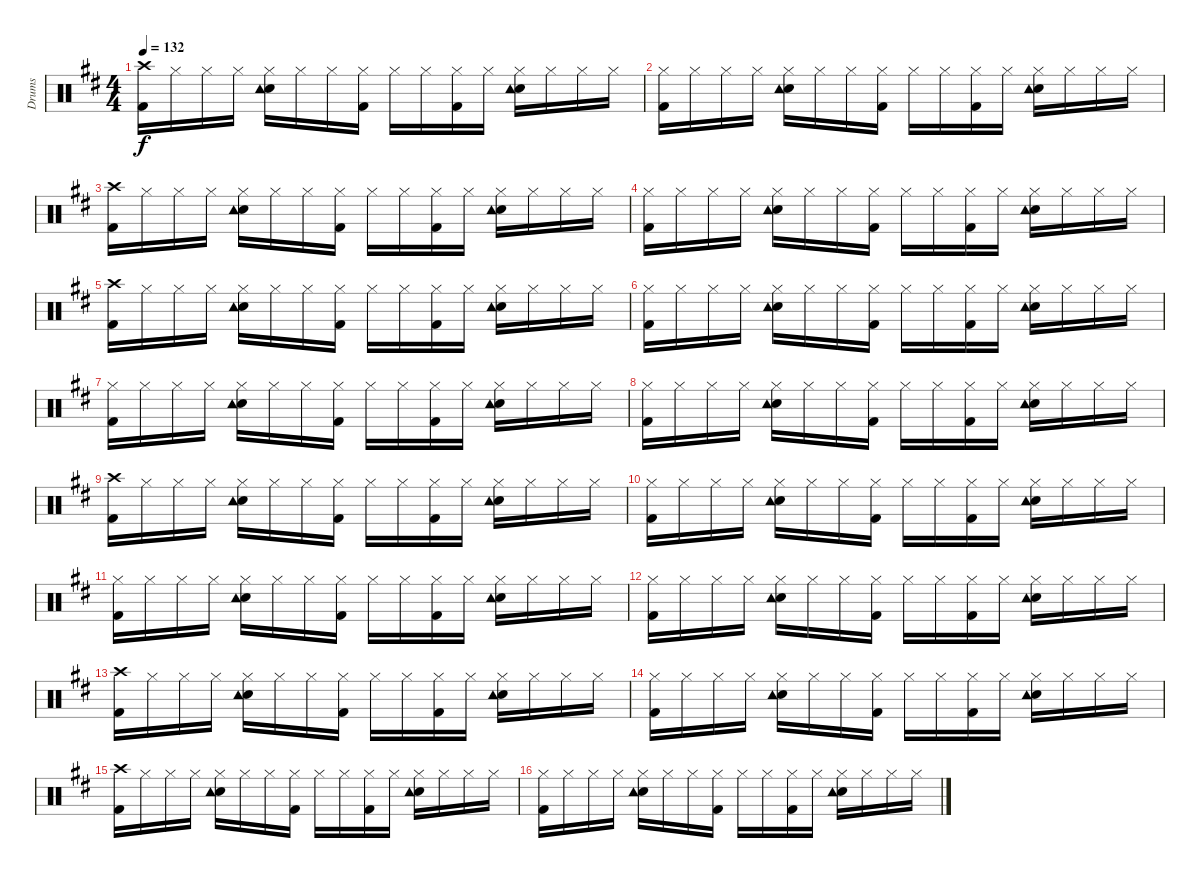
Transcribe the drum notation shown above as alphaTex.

\track ("Drums" "Drums") {instrument percussion}
\staff {score}
\articulation defaults
\ts (4 4)
\tempo 132
\clef neutral
\ks d
("Crash high (hit)" "Kick (hit) 2").16{dy f} "Hi-Hat (closed)".16 "Hi-Hat (closed)".16 "Hi-Hat (closed)".16 ("Hi-Hat (closed)" "Electric Snare (hit)" "Tambourine (hit)").16 "Hi-Hat (closed)".16 "Hi-Hat (closed)".16 ("Hi-Hat (closed)" "Kick (hit) 2").16 "Hi-Hat (closed)".16 "Hi-Hat (closed)".16 ("Hi-Hat (closed)" "Kick (hit) 2").16 "Hi-Hat (closed)".16 ("Hi-Hat (closed)" "Electric Snare (hit)" "Tambourine (hit)").16 "Hi-Hat (closed)".16 "Hi-Hat (closed)".16 "Hi-Hat (closed)".16 |
("Hi-Hat (closed)" "Kick (hit) 2").16 "Hi-Hat (closed)".16 "Hi-Hat (closed)".16 "Hi-Hat (closed)".16 ("Hi-Hat (closed)" "Electric Snare (hit)" "Tambourine (hit)").16 "Hi-Hat (closed)".16 "Hi-Hat (closed)".16 ("Hi-Hat (closed)" "Kick (hit) 2").16 "Hi-Hat (closed)".16 "Hi-Hat (closed)".16 ("Hi-Hat (closed)" "Kick (hit) 2").16 "Hi-Hat (closed)".16 ("Hi-Hat (closed)" "Electric Snare (hit)" "Tambourine (hit)").16 "Hi-Hat (closed)".16 "Hi-Hat (closed)".16 "Hi-Hat (closed)".16 |
("Crash high (hit)" "Kick (hit) 2").16 "Hi-Hat (closed)".16 "Hi-Hat (closed)".16 "Hi-Hat (closed)".16 ("Hi-Hat (closed)" "Electric Snare (hit)" "Tambourine (hit)").16 "Hi-Hat (closed)".16 "Hi-Hat (closed)".16 ("Hi-Hat (closed)" "Kick (hit) 2").16 "Hi-Hat (closed)".16 "Hi-Hat (closed)".16 ("Hi-Hat (closed)" "Kick (hit) 2").16 "Hi-Hat (closed)".16 ("Hi-Hat (closed)" "Electric Snare (hit)" "Tambourine (hit)").16 "Hi-Hat (closed)".16 "Hi-Hat (closed)".16 "Hi-Hat (closed)".16 |
("Hi-Hat (closed)" "Kick (hit) 2").16 "Hi-Hat (closed)".16 "Hi-Hat (closed)".16 "Hi-Hat (closed)".16 ("Hi-Hat (closed)" "Electric Snare (hit)" "Tambourine (hit)").16 "Hi-Hat (closed)".16 "Hi-Hat (closed)".16 ("Hi-Hat (closed)" "Kick (hit) 2").16 "Hi-Hat (closed)".16 "Hi-Hat (closed)".16 ("Hi-Hat (closed)" "Kick (hit) 2").16 "Hi-Hat (closed)".16 ("Hi-Hat (closed)" "Electric Snare (hit)" "Tambourine (hit)").16 "Hi-Hat (closed)".16 "Hi-Hat (closed)".16 "Hi-Hat (closed)".16 |
("Crash high (hit)" "Kick (hit) 2").16 "Hi-Hat (closed)".16 "Hi-Hat (closed)".16 "Hi-Hat (closed)".16 ("Hi-Hat (closed)" "Electric Snare (hit)" "Tambourine (hit)").16 "Hi-Hat (closed)".16 "Hi-Hat (closed)".16 ("Hi-Hat (closed)" "Kick (hit) 2").16 "Hi-Hat (closed)".16 "Hi-Hat (closed)".16 ("Hi-Hat (closed)" "Kick (hit) 2").16 "Hi-Hat (closed)".16 ("Hi-Hat (closed)" "Electric Snare (hit)" "Tambourine (hit)").16 "Hi-Hat (closed)".16 "Hi-Hat (closed)".16 "Hi-Hat (closed)".16 |
("Hi-Hat (closed)" "Kick (hit) 2").16 "Hi-Hat (closed)".16 "Hi-Hat (closed)".16 "Hi-Hat (closed)".16 ("Hi-Hat (closed)" "Electric Snare (hit)" "Tambourine (hit)").16 "Hi-Hat (closed)".16 "Hi-Hat (closed)".16 ("Hi-Hat (closed)" "Kick (hit) 2").16 "Hi-Hat (closed)".16 "Hi-Hat (closed)".16 ("Hi-Hat (closed)" "Kick (hit) 2").16 "Hi-Hat (closed)".16 ("Hi-Hat (closed)" "Electric Snare (hit)" "Tambourine (hit)").16 "Hi-Hat (closed)".16 "Hi-Hat (closed)".16 "Hi-Hat (closed)".16 |
("Hi-Hat (closed)" "Kick (hit) 2").16 "Hi-Hat (closed)".16 "Hi-Hat (closed)".16 "Hi-Hat (closed)".16 ("Hi-Hat (closed)" "Electric Snare (hit)" "Tambourine (hit)").16 "Hi-Hat (closed)".16 "Hi-Hat (closed)".16 ("Hi-Hat (closed)" "Kick (hit) 2").16 "Hi-Hat (closed)".16 "Hi-Hat (closed)".16 ("Hi-Hat (closed)" "Kick (hit) 2").16 "Hi-Hat (closed)".16 ("Hi-Hat (closed)" "Electric Snare (hit)" "Tambourine (hit)").16 "Hi-Hat (closed)".16 "Hi-Hat (closed)".16 "Hi-Hat (closed)".16 |
("Hi-Hat (closed)" "Kick (hit) 2").16 "Hi-Hat (closed)".16 "Hi-Hat (closed)".16 "Hi-Hat (closed)".16 ("Hi-Hat (closed)" "Electric Snare (hit)" "Tambourine (hit)").16 "Hi-Hat (closed)".16 "Hi-Hat (closed)".16 ("Hi-Hat (closed)" "Kick (hit) 2").16 "Hi-Hat (closed)".16 "Hi-Hat (closed)".16 ("Hi-Hat (closed)" "Kick (hit) 2").16 "Hi-Hat (closed)".16 ("Hi-Hat (closed)" "Electric Snare (hit)" "Tambourine (hit)").16 "Hi-Hat (closed)".16 "Hi-Hat (closed)".16 "Hi-Hat (closed)".16 |
("Crash high (hit)" "Kick (hit) 2").16 "Hi-Hat (closed)".16 "Hi-Hat (closed)".16 "Hi-Hat (closed)".16 ("Hi-Hat (closed)" "Electric Snare (hit)" "Tambourine (hit)").16 "Hi-Hat (closed)".16 "Hi-Hat (closed)".16 ("Hi-Hat (closed)" "Kick (hit) 2").16 "Hi-Hat (closed)".16 "Hi-Hat (closed)".16 ("Hi-Hat (closed)" "Kick (hit) 2").16 "Hi-Hat (closed)".16 ("Hi-Hat (closed)" "Electric Snare (hit)" "Tambourine (hit)").16 "Hi-Hat (closed)".16 "Hi-Hat (closed)".16 "Hi-Hat (closed)".16 |
("Hi-Hat (closed)" "Kick (hit) 2").16 "Hi-Hat (closed)".16 "Hi-Hat (closed)".16 "Hi-Hat (closed)".16 ("Hi-Hat (closed)" "Electric Snare (hit)" "Tambourine (hit)").16 "Hi-Hat (closed)".16 "Hi-Hat (closed)".16 ("Hi-Hat (closed)" "Kick (hit) 2").16 "Hi-Hat (closed)".16 "Hi-Hat (closed)".16 ("Hi-Hat (closed)" "Kick (hit) 2").16 "Hi-Hat (closed)".16 ("Hi-Hat (closed)" "Electric Snare (hit)" "Tambourine (hit)").16 "Hi-Hat (closed)".16 "Hi-Hat (closed)".16 "Hi-Hat (closed)".16 |
("Hi-Hat (closed)" "Kick (hit) 2").16 "Hi-Hat (closed)".16 "Hi-Hat (closed)".16 "Hi-Hat (closed)".16 ("Hi-Hat (closed)" "Electric Snare (hit)" "Tambourine (hit)").16 "Hi-Hat (closed)".16 "Hi-Hat (closed)".16 ("Hi-Hat (closed)" "Kick (hit) 2").16 "Hi-Hat (closed)".16 "Hi-Hat (closed)".16 ("Hi-Hat (closed)" "Kick (hit) 2").16 "Hi-Hat (closed)".16 ("Hi-Hat (closed)" "Electric Snare (hit)" "Tambourine (hit)").16 "Hi-Hat (closed)".16 "Hi-Hat (closed)".16 "Hi-Hat (closed)".16 |
("Hi-Hat (closed)" "Kick (hit) 2").16 "Hi-Hat (closed)".16 "Hi-Hat (closed)".16 "Hi-Hat (closed)".16 ("Hi-Hat (closed)" "Electric Snare (hit)" "Tambourine (hit)").16 "Hi-Hat (closed)".16 "Hi-Hat (closed)".16 ("Hi-Hat (closed)" "Kick (hit) 2").16 "Hi-Hat (closed)".16 "Hi-Hat (closed)".16 ("Hi-Hat (closed)" "Kick (hit) 2").16 "Hi-Hat (closed)".16 ("Hi-Hat (closed)" "Electric Snare (hit)" "Tambourine (hit)").16 "Hi-Hat (closed)".16 "Hi-Hat (closed)".16 "Hi-Hat (closed)".16 |
("Crash high (hit)" "Kick (hit) 2").16 "Hi-Hat (closed)".16 "Hi-Hat (closed)".16 "Hi-Hat (closed)".16 ("Hi-Hat (closed)" "Electric Snare (hit)" "Tambourine (hit)").16 "Hi-Hat (closed)".16 "Hi-Hat (closed)".16 ("Hi-Hat (closed)" "Kick (hit) 2").16 "Hi-Hat (closed)".16 "Hi-Hat (closed)".16 ("Hi-Hat (closed)" "Kick (hit) 2").16 "Hi-Hat (closed)".16 ("Hi-Hat (closed)" "Electric Snare (hit)" "Tambourine (hit)").16 "Hi-Hat (closed)".16 "Hi-Hat (closed)".16 "Hi-Hat (closed)".16 |
("Hi-Hat (closed)" "Kick (hit) 2").16 "Hi-Hat (closed)".16 "Hi-Hat (closed)".16 "Hi-Hat (closed)".16 ("Hi-Hat (closed)" "Electric Snare (hit)" "Tambourine (hit)").16 "Hi-Hat (closed)".16 "Hi-Hat (closed)".16 ("Hi-Hat (closed)" "Kick (hit) 2").16 "Hi-Hat (closed)".16 "Hi-Hat (closed)".16 ("Hi-Hat (closed)" "Kick (hit) 2").16 "Hi-Hat (closed)".16 ("Hi-Hat (closed)" "Electric Snare (hit)" "Tambourine (hit)").16 "Hi-Hat (closed)".16 "Hi-Hat (closed)".16 "Hi-Hat (closed)".16 |
("Crash high (hit)" "Kick (hit) 2").16 "Hi-Hat (closed)".16 "Hi-Hat (closed)".16 "Hi-Hat (closed)".16 ("Hi-Hat (closed)" "Electric Snare (hit)" "Tambourine (hit)").16 "Hi-Hat (closed)".16 "Hi-Hat (closed)".16 ("Hi-Hat (closed)" "Kick (hit) 2").16 "Hi-Hat (closed)".16 "Hi-Hat (closed)".16 ("Hi-Hat (closed)" "Kick (hit) 2").16 "Hi-Hat (closed)".16 ("Hi-Hat (closed)" "Electric Snare (hit)" "Tambourine (hit)").16 "Hi-Hat (closed)".16 "Hi-Hat (closed)".16 "Hi-Hat (closed)".16 |
("Hi-Hat (closed)" "Kick (hit) 2").16 "Hi-Hat (closed)".16 "Hi-Hat (closed)".16 "Hi-Hat (closed)".16 ("Hi-Hat (closed)" "Electric Snare (hit)" "Tambourine (hit)").16 "Hi-Hat (closed)".16 "Hi-Hat (closed)".16 ("Hi-Hat (closed)" "Kick (hit) 2").16 "Hi-Hat (closed)".16 "Hi-Hat (closed)".16 ("Hi-Hat (closed)" "Kick (hit) 2").16 "Hi-Hat (closed)".16 ("Hi-Hat (closed)" "Electric Snare (hit)" "Tambourine (hit)").16 "Hi-Hat (closed)".16 "Hi-Hat (closed)".16 "Hi-Hat (closed)".16
